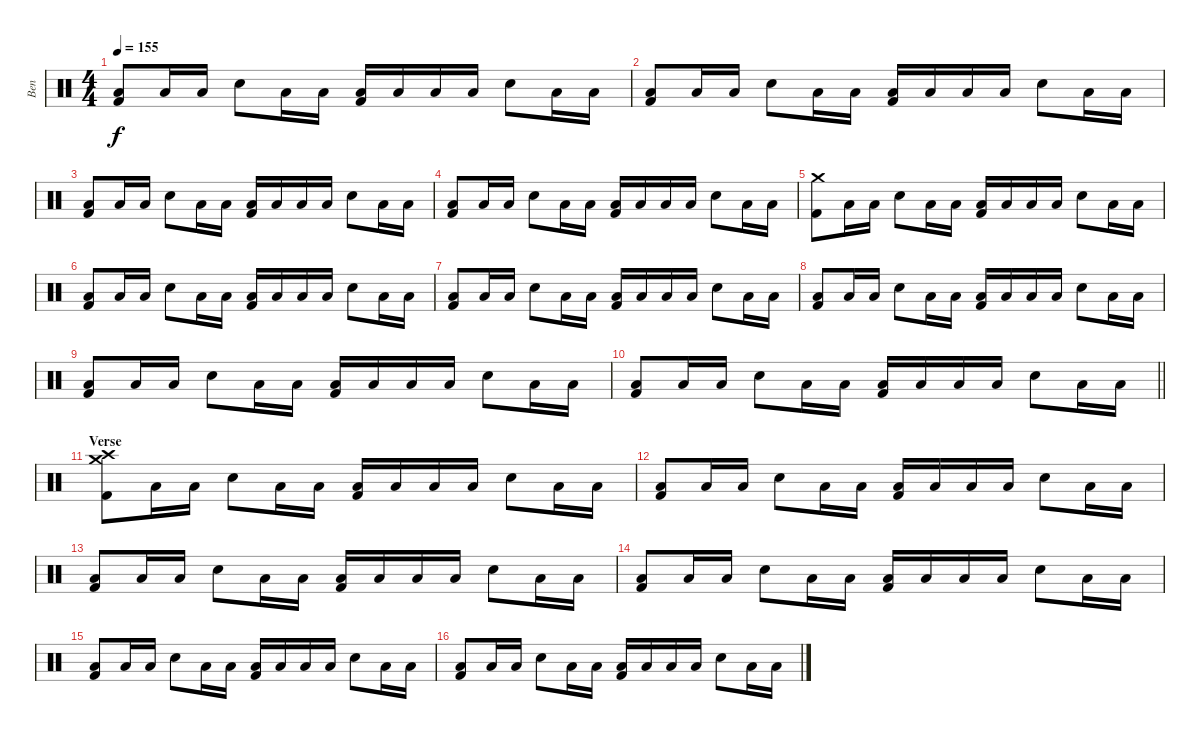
\track ("Ben" "Ben") {instrument percussion}
\staff {score}
\articulation defaults
\ts (4 4)
\tempo 155
\clef neutral
\ks c
("Kick (hit) 2" "Low Floor Tom (hit)").8{dy f} "Low Floor Tom (hit)".16 "Low Floor Tom (hit)".16 "Electric Snare (hit)".8 "Low Floor Tom (hit)".16 "Low Floor Tom (hit)".16 ("Low Floor Tom (hit)" "Kick (hit) 2").16 "Low Floor Tom (hit)".16 "Low Floor Tom (hit)".16 "Low Floor Tom (hit)".16 "Electric Snare (hit)".8 "Low Floor Tom (hit)".16 "Low Floor Tom (hit)".16 |
("Kick (hit) 2" "Low Floor Tom (hit)").8 "Low Floor Tom (hit)".16 "Low Floor Tom (hit)".16 "Electric Snare (hit)".8 "Low Floor Tom (hit)".16 "Low Floor Tom (hit)".16 ("Low Floor Tom (hit)" "Kick (hit) 2").16 "Low Floor Tom (hit)".16 "Low Floor Tom (hit)".16 "Low Floor Tom (hit)".16 "Electric Snare (hit)".8 "Low Floor Tom (hit)".16 "Low Floor Tom (hit)".16 |
("Kick (hit) 2" "Low Floor Tom (hit)").8 "Low Floor Tom (hit)".16 "Low Floor Tom (hit)".16 "Electric Snare (hit)".8 "Low Floor Tom (hit)".16 "Low Floor Tom (hit)".16 ("Low Floor Tom (hit)" "Kick (hit) 2").16 "Low Floor Tom (hit)".16 "Low Floor Tom (hit)".16 "Low Floor Tom (hit)".16 "Electric Snare (hit)".8 "Low Floor Tom (hit)".16 "Low Floor Tom (hit)".16 |
("Kick (hit) 2" "Low Floor Tom (hit)").8 "Low Floor Tom (hit)".16 "Low Floor Tom (hit)".16 "Electric Snare (hit)".8 "Low Floor Tom (hit)".16 "Low Floor Tom (hit)".16 ("Low Floor Tom (hit)" "Kick (hit) 2").16 "Low Floor Tom (hit)".16 "Low Floor Tom (hit)".16 "Low Floor Tom (hit)".16 "Electric Snare (hit)".8 "Low Floor Tom (hit)".16 "Low Floor Tom (hit)".16 |
("Kick (hit) 2" "Crash medium (hit)").8 "Low Floor Tom (hit)".16 "Low Floor Tom (hit)".16 "Electric Snare (hit)".8 "Low Floor Tom (hit)".16 "Low Floor Tom (hit)".16 ("Low Floor Tom (hit)" "Kick (hit) 2").16 "Low Floor Tom (hit)".16 "Low Floor Tom (hit)".16 "Low Floor Tom (hit)".16 "Electric Snare (hit)".8 "Low Floor Tom (hit)".16 "Low Floor Tom (hit)".16 |
("Kick (hit) 2" "Low Floor Tom (hit)").8 "Low Floor Tom (hit)".16 "Low Floor Tom (hit)".16 "Electric Snare (hit)".8 "Low Floor Tom (hit)".16 "Low Floor Tom (hit)".16 ("Low Floor Tom (hit)" "Kick (hit) 2").16 "Low Floor Tom (hit)".16 "Low Floor Tom (hit)".16 "Low Floor Tom (hit)".16 "Electric Snare (hit)".8 "Low Floor Tom (hit)".16 "Low Floor Tom (hit)".16 |
("Kick (hit) 2" "Low Floor Tom (hit)").8 "Low Floor Tom (hit)".16 "Low Floor Tom (hit)".16 "Electric Snare (hit)".8 "Low Floor Tom (hit)".16 "Low Floor Tom (hit)".16 ("Low Floor Tom (hit)" "Kick (hit) 2").16 "Low Floor Tom (hit)".16 "Low Floor Tom (hit)".16 "Low Floor Tom (hit)".16 "Electric Snare (hit)".8 "Low Floor Tom (hit)".16 "Low Floor Tom (hit)".16 |
("Kick (hit) 2" "Low Floor Tom (hit)").8 "Low Floor Tom (hit)".16 "Low Floor Tom (hit)".16 "Electric Snare (hit)".8 "Low Floor Tom (hit)".16 "Low Floor Tom (hit)".16 ("Low Floor Tom (hit)" "Kick (hit) 2").16 "Low Floor Tom (hit)".16 "Low Floor Tom (hit)".16 "Low Floor Tom (hit)".16 "Electric Snare (hit)".8 "Low Floor Tom (hit)".16 "Low Floor Tom (hit)".16 |
("Kick (hit) 2" "Low Floor Tom (hit)").8 "Low Floor Tom (hit)".16 "Low Floor Tom (hit)".16 "Electric Snare (hit)".8 "Low Floor Tom (hit)".16 "Low Floor Tom (hit)".16 ("Low Floor Tom (hit)" "Kick (hit) 2").16 "Low Floor Tom (hit)".16 "Low Floor Tom (hit)".16 "Low Floor Tom (hit)".16 "Electric Snare (hit)".8 "Low Floor Tom (hit)".16 "Low Floor Tom (hit)".16 |
\barLineRight lightlight
("Kick (hit) 2" "Low Floor Tom (hit)").8 "Low Floor Tom (hit)".16 "Low Floor Tom (hit)".16 "Electric Snare (hit)".8 "Low Floor Tom (hit)".16 "Low Floor Tom (hit)".16 ("Low Floor Tom (hit)" "Kick (hit) 2").16 "Low Floor Tom (hit)".16 "Low Floor Tom (hit)".16 "Low Floor Tom (hit)".16 "Electric Snare (hit)".8 "Low Floor Tom (hit)".16 "Low Floor Tom (hit)".16 |
\section ("" "Verse")
("Kick (hit) 2" "Crash medium (hit)" "Crash high (hit)").8 "Low Floor Tom (hit)".16 "Low Floor Tom (hit)".16 "Electric Snare (hit)".8 "Low Floor Tom (hit)".16 "Low Floor Tom (hit)".16 ("Low Floor Tom (hit)" "Kick (hit) 2").16 "Low Floor Tom (hit)".16 "Low Floor Tom (hit)".16 "Low Floor Tom (hit)".16 "Electric Snare (hit)".8 "Low Floor Tom (hit)".16 "Low Floor Tom (hit)".16 |
("Kick (hit) 2" "Low Floor Tom (hit)").8 "Low Floor Tom (hit)".16 "Low Floor Tom (hit)".16 "Electric Snare (hit)".8 "Low Floor Tom (hit)".16 "Low Floor Tom (hit)".16 ("Low Floor Tom (hit)" "Kick (hit) 2").16 "Low Floor Tom (hit)".16 "Low Floor Tom (hit)".16 "Low Floor Tom (hit)".16 "Electric Snare (hit)".8 "Low Floor Tom (hit)".16 "Low Floor Tom (hit)".16 |
("Kick (hit) 2" "Low Floor Tom (hit)").8 "Low Floor Tom (hit)".16 "Low Floor Tom (hit)".16 "Electric Snare (hit)".8 "Low Floor Tom (hit)".16 "Low Floor Tom (hit)".16 ("Low Floor Tom (hit)" "Kick (hit) 2").16 "Low Floor Tom (hit)".16 "Low Floor Tom (hit)".16 "Low Floor Tom (hit)".16 "Electric Snare (hit)".8 "Low Floor Tom (hit)".16 "Low Floor Tom (hit)".16 |
("Kick (hit) 2" "Low Floor Tom (hit)").8 "Low Floor Tom (hit)".16 "Low Floor Tom (hit)".16 "Electric Snare (hit)".8 "Low Floor Tom (hit)".16 "Low Floor Tom (hit)".16 ("Low Floor Tom (hit)" "Kick (hit) 2").16 "Low Floor Tom (hit)".16 "Low Floor Tom (hit)".16 "Low Floor Tom (hit)".16 "Electric Snare (hit)".8 "Low Floor Tom (hit)".16 "Low Floor Tom (hit)".16 |
("Kick (hit) 2" "Low Floor Tom (hit)").8 "Low Floor Tom (hit)".16 "Low Floor Tom (hit)".16 "Electric Snare (hit)".8 "Low Floor Tom (hit)".16 "Low Floor Tom (hit)".16 ("Low Floor Tom (hit)" "Kick (hit) 2").16 "Low Floor Tom (hit)".16 "Low Floor Tom (hit)".16 "Low Floor Tom (hit)".16 "Electric Snare (hit)".8 "Low Floor Tom (hit)".16 "Low Floor Tom (hit)".16 |
("Kick (hit) 2" "Low Floor Tom (hit)").8 "Low Floor Tom (hit)".16 "Low Floor Tom (hit)".16 "Electric Snare (hit)".8 "Low Floor Tom (hit)".16 "Low Floor Tom (hit)".16 ("Low Floor Tom (hit)" "Kick (hit) 2").16 "Low Floor Tom (hit)".16 "Low Floor Tom (hit)".16 "Low Floor Tom (hit)".16 "Electric Snare (hit)".8 "Low Floor Tom (hit)".16 "Low Floor Tom (hit)".16
